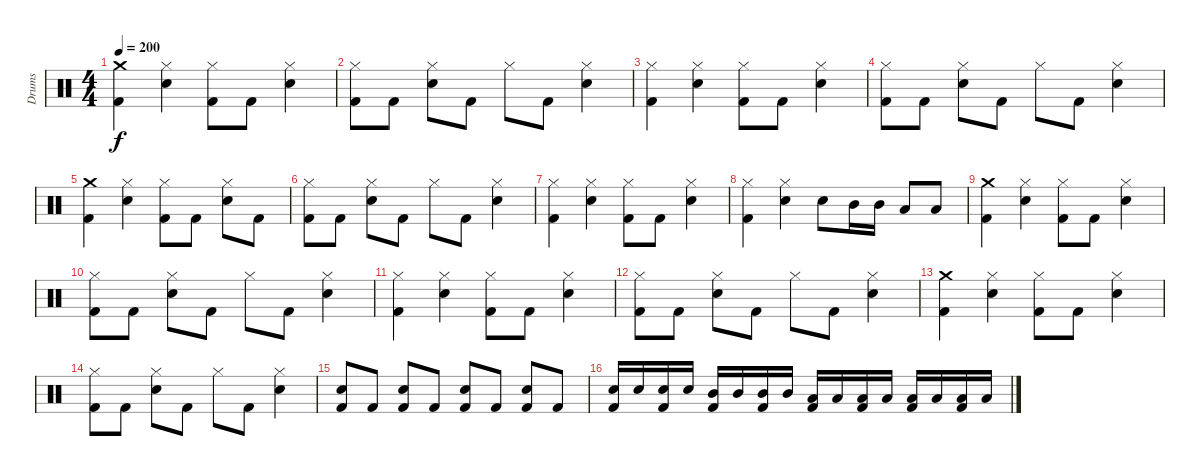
\track ("Drums" "Drums") {instrument percussion}
\staff {score}
\articulation defaults
\ts (4 4)
\tempo 200
\clef neutral
\ks c
("Crash medium (hit)" "Kick (hit) 2").4{dy f} ("Hi-Hat (closed)" "Snare (hit) 2").4 ("Hi-Hat (closed)" "Kick (hit) 2").8 "Kick (hit) 2".8 ("Hi-Hat (closed)" "Snare (hit) 2").4 |
("Hi-Hat (closed)" "Kick (hit) 2").8 "Kick (hit) 2".8 ("Hi-Hat (closed)" "Snare (hit) 2").8 "Kick (hit) 2".8 "Hi-Hat (closed)".8 "Kick (hit) 2".8 ("Hi-Hat (closed)" "Snare (hit) 2").4 |
("Hi-Hat (closed)" "Kick (hit) 2").4 ("Hi-Hat (closed)" "Snare (hit) 2").4 ("Hi-Hat (closed)" "Kick (hit) 2").8 "Kick (hit) 2".8 ("Hi-Hat (closed)" "Snare (hit) 2").4 |
("Hi-Hat (closed)" "Kick (hit) 2").8 "Kick (hit) 2".8 ("Hi-Hat (closed)" "Snare (hit) 2").8 "Kick (hit) 2".8 "Hi-Hat (closed)".8 "Kick (hit) 2".8 ("Hi-Hat (closed)" "Snare (hit) 2").4 |
("Crash medium (hit)" "Kick (hit) 2").4 ("Hi-Hat (closed)" "Snare (hit) 2").4 ("Hi-Hat (closed)" "Kick (hit) 2").8 "Kick (hit) 2".8 ("Hi-Hat (closed)" "Snare (hit) 2").8 "Kick (hit) 2".8 |
("Hi-Hat (closed)" "Kick (hit) 2").8 "Kick (hit) 2".8 ("Hi-Hat (closed)" "Snare (hit) 2").8 "Kick (hit) 2".8 "Hi-Hat (closed)".8 "Kick (hit) 2".8 ("Hi-Hat (closed)" "Snare (hit) 2").4 |
("Hi-Hat (closed)" "Kick (hit) 2").4 ("Hi-Hat (closed)" "Snare (hit) 2").4 ("Hi-Hat (closed)" "Kick (hit) 2").8 "Kick (hit) 2".8 ("Hi-Hat (closed)" "Snare (hit) 2").4 |
("Hi-Hat (closed)" "Kick (hit) 2").4 ("Hi-Hat (closed)" "Snare (hit) 2").4 "Snare (hit) 2".8 "Mid Tom (hit)".16 "Mid Tom (hit)".16 "Low Tom (hit)".8 "Low Floor Tom (hit)".8 |
("Crash medium (hit)" "Kick (hit) 2").4 ("Hi-Hat (closed)" "Snare (hit) 2").4 ("Hi-Hat (closed)" "Kick (hit) 2").8 "Kick (hit) 2".8 ("Hi-Hat (closed)" "Snare (hit) 2").4 |
("Hi-Hat (closed)" "Kick (hit) 2").8 "Kick (hit) 2".8 ("Hi-Hat (closed)" "Snare (hit) 2").8 "Kick (hit) 2".8 "Hi-Hat (closed)".8 "Kick (hit) 2".8 ("Hi-Hat (closed)" "Snare (hit) 2").4 |
("Hi-Hat (closed)" "Kick (hit) 2").4 ("Hi-Hat (closed)" "Snare (hit) 2").4 ("Hi-Hat (closed)" "Kick (hit) 2").8 "Kick (hit) 2".8 ("Hi-Hat (closed)" "Snare (hit) 2").4 |
("Hi-Hat (closed)" "Kick (hit) 2").8 "Kick (hit) 2".8 ("Hi-Hat (closed)" "Snare (hit) 2").8 "Kick (hit) 2".8 "Hi-Hat (closed)".8 "Kick (hit) 2".8 ("Hi-Hat (closed)" "Snare (hit) 2").4 |
("Crash medium (hit)" "Kick (hit) 2").4 ("Hi-Hat (closed)" "Snare (hit) 2").4 ("Hi-Hat (closed)" "Kick (hit) 2").8 "Kick (hit) 2".8 ("Hi-Hat (closed)" "Snare (hit) 2").4 |
("Hi-Hat (closed)" "Kick (hit) 2").8 "Kick (hit) 2".8 ("Hi-Hat (closed)" "Snare (hit) 2").8 "Kick (hit) 2".8 "Hi-Hat (closed)".8 "Kick (hit) 2".8 ("Hi-Hat (closed)" "Snare (hit) 2").4 |
("Snare (hit) 2" "Kick (hit) 2").8 "Kick (hit) 2".8 ("Snare (hit) 2" "Kick (hit) 2").8 "Kick (hit) 2".8 ("Snare (hit) 2" "Kick (hit) 2").8 "Kick (hit) 2".8 ("Snare (hit) 2" "Kick (hit) 2").8 "Kick (hit) 2".8 |
("Snare (hit) 2" "Kick (hit) 2").16 "Snare (hit) 2".16 ("Snare (hit) 2" "Kick (hit) 2").16 "Snare (hit) 2".16 ("Mid Tom (hit)" "Kick (hit) 2").16 "Mid Tom (hit)".16 ("Mid Tom (hit)" "Kick (hit) 2").16 "Mid Tom (hit)".16 ("Low Tom (hit)" "Kick (hit) 2").16 "Low Tom (hit)".16 ("Low Tom (hit)" "Kick (hit) 2").16 "Low Tom (hit)".16 ("Low Floor Tom (hit)" "Kick (hit) 2").16 "Low Floor Tom (hit)".16 ("Low Floor Tom (hit)" "Kick (hit) 2").16 "Low Floor Tom (hit)".16
